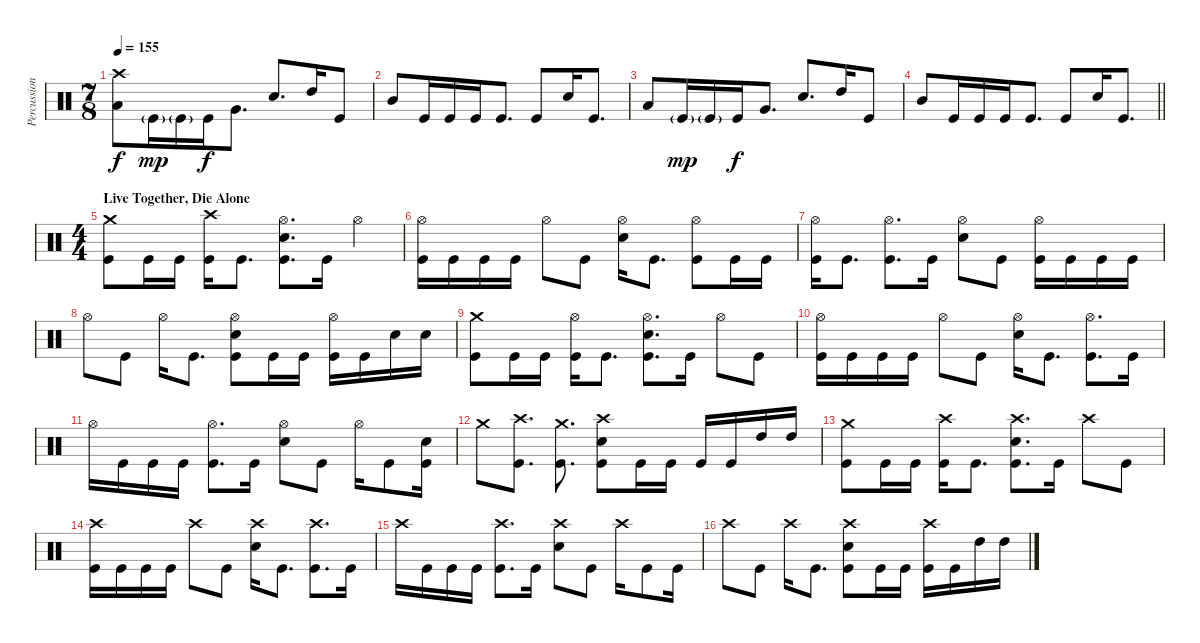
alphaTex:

\track ("Percussion" "Percussion") {instrument percussion}
\staff {score}
\articulation defaults
\ts (7 8)
\tempo 155
\clef neutral
\ks c
("Crash high (hit)" "Low Floor Tom (hit)").8{dy f} "Kick (hit)"{g}.16{dy mp} "Kick (hit)"{g}.16 "Kick (hit)".16{dy f} "Very Low Tom (hit)".8{d} "Electric Snare (hit)".8{d} "High Tom (hit)".16 "Kick (hit)".8 |
"Mid Tom (hit)".8 "Kick (hit)".16 "Kick (hit)".16 "Kick (hit)".16 "Kick (hit)".8{d} "Kick (hit)".8 "Electric Snare (hit)".16 "Kick (hit)".8{d} |
"Low Floor Tom (hit)".8 "Kick (hit)"{g}.16{dy mp} "Kick (hit)"{g}.16 "Kick (hit)".16{dy f} "Very Low Tom (hit)".8{d} "Electric Snare (hit)".8{d} "High Tom (hit)".16 "Kick (hit)".8 |
\barLineRight lightlight "Mid Tom (hit)".8 "Kick (hit)".16 "Kick (hit)".16 "Kick (hit)".16 "Kick (hit)".8{d} "Kick (hit)".8 "Electric Snare (hit)".16 "Kick (hit)".8{d}
|
\ts (4 4)
\section ("" "Live Together, Die Alone")
("Crash medium (hit)" "Kick (hit)").8 "Kick (hit)".16 "Kick (hit)".16 ("Crash high (hit)" "Kick (hit)").16 "Kick (hit)".8{d} ("Hi-Hat (open)" "Electric Snare (hit)" "Kick (hit)").8{d} "Kick (hit)".16 "Hi-Hat (open)".4 |
("Hi-Hat (open)" "Kick (hit)").16 "Kick (hit)".16 "Kick (hit)".16 "Kick (hit)".16 "Hi-Hat (open)".8 "Kick (hit)".8 ("Hi-Hat (open)" "Electric Snare (hit)").16 "Kick (hit)".8{d} ("Hi-Hat (open)" "Kick (hit)").8 "Kick (hit)".16 "Kick (hit)".16 |
("Hi-Hat (open)" "Kick (hit)").16 "Kick (hit)".8{d} ("Hi-Hat (open)" "Kick (hit)").8{d} "Kick (hit)".16 ("Hi-Hat (open)" "Electric Snare (hit)").8 "Kick (hit)".8 ("Hi-Hat (open)" "Kick (hit)").16 "Kick (hit)".16 "Kick (hit)".16 "Kick (hit)".16 |
"Hi-Hat (open)".8 "Kick (hit)".8 "Hi-Hat (open)".16 "Kick (hit)".8{d} ("Hi-Hat (open)" "Electric Snare (hit)" "Kick (hit)").8 "Kick (hit)".16 "Kick (hit)".16 ("Hi-Hat (open)" "Kick (hit)").16 "Kick (hit)".16 "Electric Snare (hit)".16 "Electric Snare (hit)".16 |
("Crash medium (hit)" "Kick (hit)").8 "Kick (hit)".16 "Kick (hit)".16 ("Hi-Hat (open)" "Kick (hit)").16 "Kick (hit)".8{d} ("Hi-Hat (open)" "Electric Snare (hit)" "Kick (hit)").8{d} "Kick (hit)".16 "Hi-Hat (open)".8 "Kick (hit)".8 |
("Hi-Hat (open)" "Kick (hit)").16 "Kick (hit)".16 "Kick (hit)".16 "Kick (hit)".16 "Hi-Hat (open)".8 "Kick (hit)".8 ("Hi-Hat (open)" "Electric Snare (hit)").16 "Kick (hit)".8{d} ("Hi-Hat (open)" "Kick (hit)").8{d} "Kick (hit)".16 |
"Hi-Hat (open)".16 "Kick (hit)".16 "Kick (hit)".16 "Kick (hit)".16 ("Hi-Hat (open)" "Kick (hit)").8{d} "Kick (hit)".16 ("Hi-Hat (open)" "Electric Snare (hit)").8 "Kick (hit)".8 "Hi-Hat (open)".16 "Kick (hit)".8 ("Electric Snare (hit)" "Kick (hit)").16 |
"Crash medium (hit)".8 ("Crash high (hit)" "Kick (hit)").8{d} ("Crash medium (hit)" "Kick (hit)").8{d} ("Crash high (hit)" "Electric Snare (hit)" "Kick (hit)").8 "Kick (hit)".16 "Kick (hit)".16 "Kick (hit)".16 "Kick (hit)".16 "High Tom (hit)".16 "High Tom (hit)".16 |
("Crash medium (hit)" "Kick (hit)").8 "Kick (hit)".16 "Kick (hit)".16 ("Crash high (hit)" "Kick (hit)").16 "Kick (hit)".8{d} ("Crash high (hit)" "Electric Snare (hit)" "Kick (hit)").8{d} "Kick (hit)".16 "Crash high (hit)".8 "Kick (hit)".8 |
("Crash high (hit)" "Kick (hit)").16 "Kick (hit)".16 "Kick (hit)".16 "Kick (hit)".16 "Crash high (hit)".8 "Kick (hit)".8 ("Crash high (hit)" "Electric Snare (hit)").16 "Kick (hit)".8{d} ("Crash high (hit)" "Kick (hit)").8{d} "Kick (hit)".16 |
"Crash high (hit)".16 "Kick (hit)".16 "Kick (hit)".16 "Kick (hit)".16 ("Crash high (hit)" "Kick (hit)").8{d} "Kick (hit)".16 ("Crash high (hit)" "Electric Snare (hit)").8 "Kick (hit)".8 "Crash high (hit)".16 "Kick (hit)".8 "Kick (hit)".16 |
"Crash high (hit)".8 "Kick (hit)".8 "Crash high (hit)".16 "Kick (hit)".8{d} ("Crash high (hit)" "Electric Snare (hit)" "Kick (hit)").8 "Kick (hit)".16 "Kick (hit)".16 ("Crash high (hit)" "Kick (hit)").16 "Kick (hit)".16 "High Tom (hit)".16 "High Tom (hit)".16
